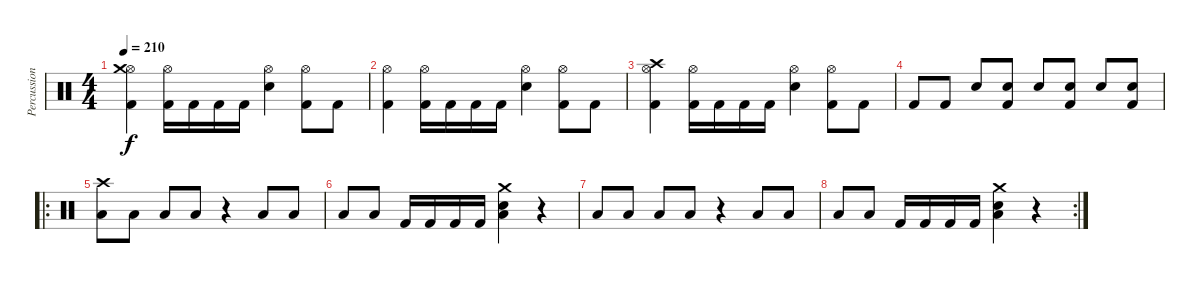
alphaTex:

\track ("Percussion" "Percussion") {instrument percussion}
\staff {score}
\articulation defaults
\ts (4 4)
\tempo 210
\clef neutral
\ks c
("Hi-Hat (open)" "Kick (hit) 2" "Crash medium (hit)").4{dy f} ("Hi-Hat (open)" "Kick (hit) 2").16 "Kick (hit) 2".16 "Kick (hit) 2".16 "Kick (hit) 2".16 ("Hi-Hat (open)" "Snare (hit) 2").4 ("Hi-Hat (open)" "Kick (hit) 2").8 "Kick (hit) 2".8 |
("Hi-Hat (open)" "Kick (hit) 2").4 ("Hi-Hat (open)" "Kick (hit) 2").16 "Kick (hit) 2".16 "Kick (hit) 2".16 "Kick (hit) 2".16 ("Hi-Hat (open)" "Snare (hit) 2").4 ("Hi-Hat (open)" "Kick (hit) 2").8 "Kick (hit) 2".8 |
("Hi-Hat (open)" "Kick (hit) 2" "Crash high (hit)").4 ("Hi-Hat (open)" "Kick (hit) 2").16 "Kick (hit) 2".16 "Kick (hit) 2".16 "Kick (hit) 2".16 ("Hi-Hat (open)" "Snare (hit) 2").4 ("Hi-Hat (open)" "Kick (hit) 2").8 "Kick (hit) 2".8 |
"Kick (hit) 2".8 "Kick (hit) 2".8 "Snare (hit) 2".8 ("Kick (hit) 2" "Snare (hit) 2").8 "Snare (hit) 2".8 ("Kick (hit) 2" "Snare (hit) 2").8 "Snare (hit) 2".8 ("Kick (hit) 2" "Snare (hit) 2").8 |
\ro
("Low Floor Tom (hit)" "Crash high (hit)").8 "Low Floor Tom (hit)".8 "Low Floor Tom (hit)".8 "Low Floor Tom (hit)".8 r.4 "Low Floor Tom (hit)".8 "Low Floor Tom (hit)".8 |
"Low Floor Tom (hit)".8 "Low Floor Tom (hit)".8 "Kick (hit) 2".16 "Kick (hit) 2".16 "Kick (hit) 2".16 "Kick (hit) 2".16 ("Snare (hit) 2" "Crash medium (hit)" "Low Floor Tom (hit)").4 r.4 |
"Low Floor Tom (hit)".8 "Low Floor Tom (hit)".8 "Low Floor Tom (hit)".8 "Low Floor Tom (hit)".8 r.4 "Low Floor Tom (hit)".8 "Low Floor Tom (hit)".8 |
\rc 2 "Low Floor Tom (hit)".8 "Low Floor Tom (hit)".8 "Kick (hit) 2".16 "Kick (hit) 2".16 "Kick (hit) 2".16 "Kick (hit) 2".16
("Snare (hit) 2" "Crash medium (hit)" "Low Floor Tom (hit)").4 r.4
